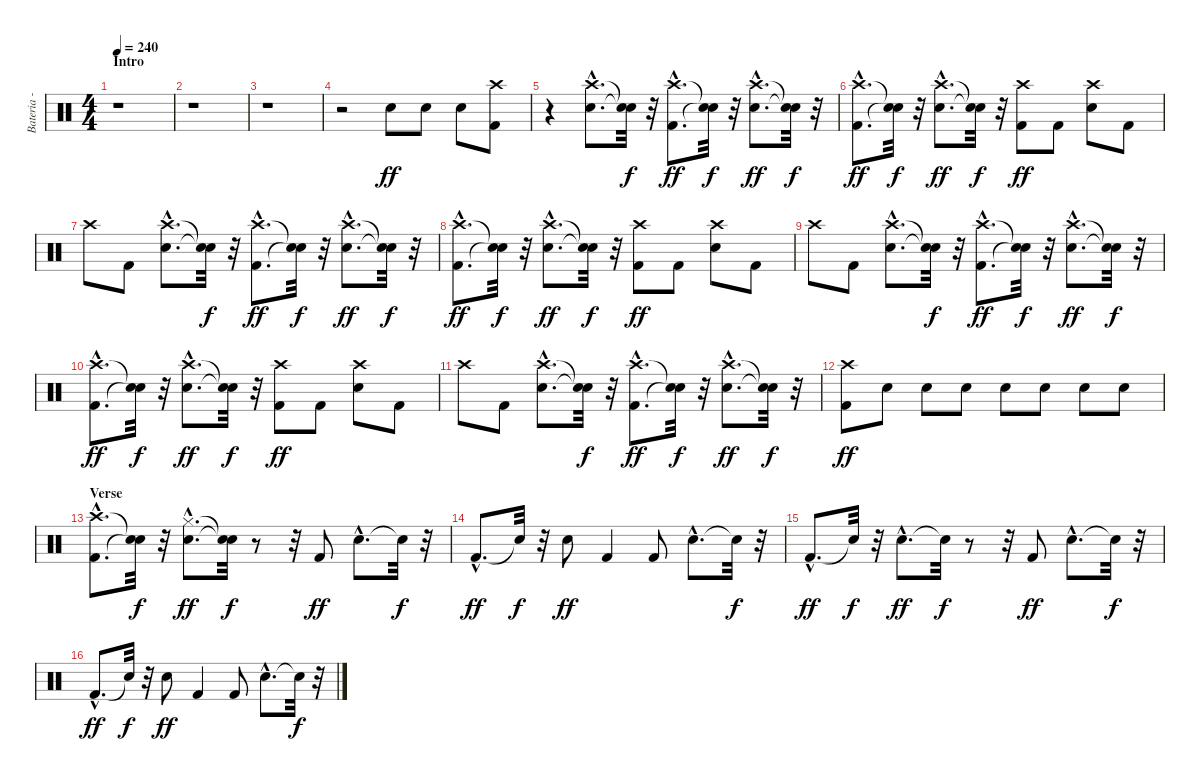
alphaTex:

\track ("Bateria - Larzon" "Bateria - ") {instrument percussion}
\staff {score}
\articulation defaults
\ts (4 4)
\section ("" "Intro")
\tempo 240
\clef neutral
\ks c
r.1{dy ff} |
r.1 |
r.1 |
r.2 "Electric Snare (hit)".8 "Electric Snare (hit)".8 "Electric Snare (hit)".8 ("Kick (hit) 2" "Crash high (hit)").8 |
r.4 ("Electric Snare (hit)"{hac} "Crash high (hit)"{hac}).8{d} ("Snare (hit)"{t} "Snare (hit)"{t}).32{dy f} r.32 ("Kick (hit) 2"{hac} "Crash high (hit)"{hac}).8{d dy ff} ("Snare (hit)"{t} "Snare (hit)"{t}).32{dy f} r.32 ("Electric Snare (hit)"{hac} "Crash high (hit)"{hac}).8{d dy ff} ("Snare (hit)"{t} "Snare (hit)"{t}).32{dy f} r.32 |
("Kick (hit) 2"{hac} "Crash high (hit)"{hac}).8{d dy ff} ("Snare (hit)"{t} "Snare (hit)"{t}).32{dy f} r.32 ("Electric Snare (hit)"{hac} "Crash high (hit)"{hac}).8{d dy ff} ("Snare (hit)"{t} "Snare (hit)"{t}).32{dy f} r.32 ("Kick (hit) 2" "Crash high (hit)").8{dy ff} "Kick (hit) 2".8 ("Electric Snare (hit)" "Crash high (hit)").8 "Kick (hit) 2".8 |
"Crash high (hit)".8 "Kick (hit) 2".8 ("Electric Snare (hit)"{hac} "Crash high (hit)"{hac}).8{d} ("Snare (hit)"{t} "Snare (hit)"{t}).32{dy f} r.32 ("Kick (hit) 2"{hac} "Crash high (hit)"{hac}).8{d dy ff} ("Snare (hit)"{t} "Snare (hit)"{t}).32{dy f} r.32 ("Electric Snare (hit)"{hac} "Crash high (hit)"{hac}).8{d dy ff} ("Snare (hit)"{t} "Snare (hit)"{t}).32{dy f} r.32 |
("Kick (hit) 2"{hac} "Crash high (hit)"{hac}).8{d dy ff} ("Snare (hit)"{t} "Snare (hit)"{t}).32{dy f} r.32 ("Electric Snare (hit)"{hac} "Crash high (hit)"{hac}).8{d dy ff} ("Snare (hit)"{t} "Snare (hit)"{t}).32{dy f} r.32 ("Kick (hit) 2" "Crash high (hit)").8{dy ff} "Kick (hit) 2".8 ("Electric Snare (hit)" "Crash high (hit)").8 "Kick (hit) 2".8 |
"Crash high (hit)".8 "Kick (hit) 2".8 ("Electric Snare (hit)"{hac} "Crash high (hit)"{hac}).8{d} ("Snare (hit)"{t} "Snare (hit)"{t}).32{dy f} r.32 ("Kick (hit) 2"{hac} "Crash high (hit)"{hac}).8{d dy ff} ("Snare (hit)"{t} "Snare (hit)"{t}).32{dy f} r.32 ("Electric Snare (hit)"{hac} "Crash high (hit)"{hac}).8{d dy ff} ("Snare (hit)"{t} "Snare (hit)"{t}).32{dy f} r.32 |
("Kick (hit) 2"{hac} "Crash high (hit)"{hac}).8{d dy ff} ("Snare (hit)"{t} "Snare (hit)"{t}).32{dy f} r.32 ("Electric Snare (hit)"{hac} "Crash high (hit)"{hac}).8{d dy ff} ("Snare (hit)"{t} "Snare (hit)"{t}).32{dy f} r.32 ("Kick (hit) 2" "Crash high (hit)").8{dy ff} "Kick (hit) 2".8 ("Electric Snare (hit)" "Crash high (hit)").8 "Kick (hit) 2".8 |
"Crash high (hit)".8 "Kick (hit) 2".8 ("Electric Snare (hit)"{hac} "Crash high (hit)"{hac}).8{d} ("Snare (hit)"{t} "Snare (hit)"{t}).32{dy f} r.32 ("Kick (hit) 2"{hac} "Crash high (hit)"{hac}).8{d dy ff} ("Snare (hit)"{t} "Snare (hit)"{t}).32{dy f} r.32 ("Electric Snare (hit)"{hac} "Crash high (hit)"{hac}).8{d dy ff} ("Snare (hit)"{t} "Snare (hit)"{t}).32{dy f} r.32 |
("Kick (hit) 2" "Crash high (hit)").8{dy ff} "Electric Snare (hit)".8 "Electric Snare (hit)".8 "Electric Snare (hit)".8 "Electric Snare (hit)".8 "Electric Snare (hit)".8 "Electric Snare (hit)".8 "Electric Snare (hit)".8 |
\section ("" "Verse")
("Kick (hit) 2"{hac} "Crash high (hit)"{hac}).8{d} ("Snare (hit)"{t} "Snare (hit)"{t}).32{dy f} r.32 ("Electric Snare (hit)"{hac} "Hi-Hat (closed)"{hac}).8{d dy ff} ("Snare (hit)"{t} "Snare (hit)"{t}).32{dy f} r.8 r.32 "Kick (hit) 2".8{dy ff} "Electric Snare (hit)"{hac}.8{d} "Snare (hit)"{t}.32{dy f} r.32 |
"Kick (hit) 2"{hac}.8{d dy ff} "Snare (hit)"{t}.32{dy f} r.32 "Electric Snare (hit)".8{dy ff} "Kick (hit) 2".4 "Kick (hit) 2".8 "Electric Snare (hit)"{hac}.8{d} "Snare (hit)"{t}.32{dy f} r.32 |
"Kick (hit) 2"{hac}.8{d dy ff} "Snare (hit)"{t}.32{dy f} r.32 "Electric Snare (hit)"{hac}.8{d dy ff} "Snare (hit)"{t}.32{dy f} r.8 r.32 "Kick (hit) 2".8{dy ff} "Electric Snare (hit)"{hac}.8{d} "Snare (hit)"{t}.32{dy f} r.32 |
"Kick (hit) 2"{hac}.8{d dy ff} "Snare (hit)"{t}.32{dy f} r.32 "Electric Snare (hit)".8{dy ff} "Kick (hit) 2".4 "Kick (hit) 2".8 "Electric Snare (hit)"{hac}.8{d} "Snare (hit)"{t}.32{dy f} r.32
